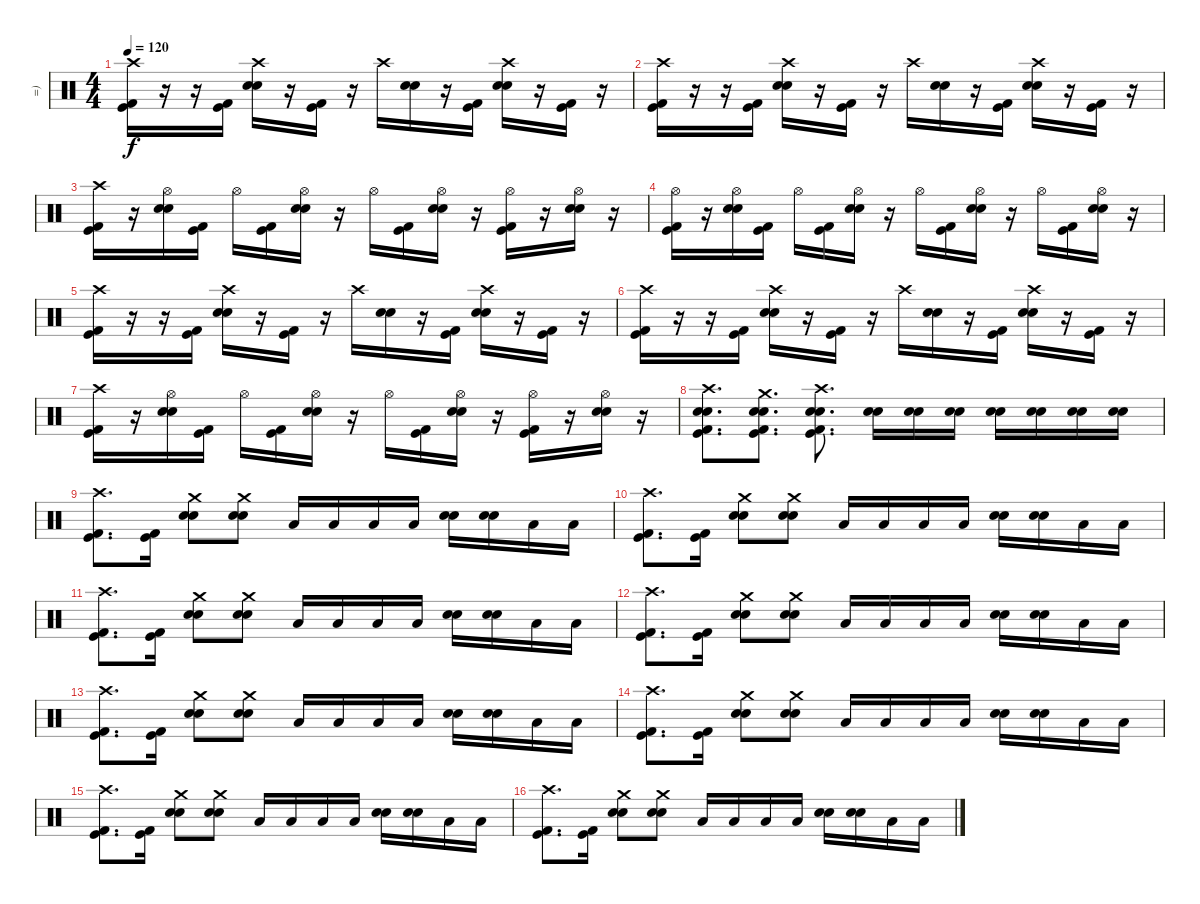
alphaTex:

\track ("=)" "=)") {instrument percussion}
\staff {score}
\articulation defaults
\ts (4 4)
\tempo 120
\clef neutral
\ks c
("Crash high (hit)" "Kick (hit)" "Kick (hit) 2").16{dy f} r.16 r.16 ("Kick (hit)" "Kick (hit) 2").16 ("Crash high (hit)" "Snare (hit) 2" "Electric Snare (hit)").16 r.16 ("Kick (hit)" "Kick (hit) 2").16 r.16 "Crash high (hit)".16 ("Snare (hit) 2" "Electric Snare (hit)").16 r.16 ("Kick (hit)" "Kick (hit) 2").16 ("Crash high (hit)" "Snare (hit) 2" "Electric Snare (hit)").16 r.16 ("Kick (hit)" "Kick (hit) 2").16 r.16 |
("Crash high (hit)" "Kick (hit)" "Kick (hit) 2").16 r.16 r.16 ("Kick (hit)" "Kick (hit) 2").16 ("Crash high (hit)" "Snare (hit) 2" "Electric Snare (hit)").16 r.16 ("Kick (hit)" "Kick (hit) 2").16 r.16 "Crash high (hit)".16 ("Snare (hit) 2" "Electric Snare (hit)").16 r.16 ("Kick (hit)" "Kick (hit) 2").16 ("Crash high (hit)" "Snare (hit) 2" "Electric Snare (hit)").16 r.16 ("Kick (hit)" "Kick (hit) 2").16 r.16 |
("Crash high (hit)" "Kick (hit)" "Kick (hit) 2").16 r.16 ("Hi-Hat (open)" "Snare (hit) 2" "Electric Snare (hit)").16 ("Kick (hit)" "Kick (hit) 2").16 "Hi-Hat (open)".16 ("Kick (hit)" "Kick (hit) 2").16 ("Hi-Hat (open)" "Snare (hit) 2" "Electric Snare (hit)").16 r.16 "Hi-Hat (open)".16 ("Kick (hit)" "Kick (hit) 2").16 ("Hi-Hat (open)" "Snare (hit) 2" "Electric Snare (hit)").16 r.16 ("Hi-Hat (open)" "Kick (hit)" "Kick (hit) 2").16 r.16 ("Hi-Hat (open)" "Snare (hit) 2" "Electric Snare (hit)").16 r.16 |
("Hi-Hat (open)" "Kick (hit)" "Kick (hit) 2").16 r.16 ("Hi-Hat (open)" "Snare (hit) 2" "Electric Snare (hit)").16 ("Kick (hit)" "Kick (hit) 2").16 "Hi-Hat (open)".16 ("Kick (hit)" "Kick (hit) 2").16 ("Hi-Hat (open)" "Snare (hit) 2" "Electric Snare (hit)").16 r.16 "Hi-Hat (open)".16 ("Kick (hit)" "Kick (hit) 2").16 ("Hi-Hat (open)" "Snare (hit) 2" "Electric Snare (hit)").16 r.16 "Hi-Hat (open)".16 ("Kick (hit)" "Kick (hit) 2").16 ("Hi-Hat (open)" "Snare (hit) 2" "Electric Snare (hit)").16 r.16 |
("Crash high (hit)" "Kick (hit)" "Kick (hit) 2").16 r.16 r.16 ("Kick (hit)" "Kick (hit) 2").16 ("Crash high (hit)" "Snare (hit) 2" "Electric Snare (hit)").16 r.16 ("Kick (hit)" "Kick (hit) 2").16 r.16 "Crash high (hit)".16 ("Snare (hit) 2" "Electric Snare (hit)").16 r.16 ("Kick (hit)" "Kick (hit) 2").16 ("Crash high (hit)" "Snare (hit) 2" "Electric Snare (hit)").16 r.16 ("Kick (hit)" "Kick (hit) 2").16 r.16 |
("Crash high (hit)" "Kick (hit)" "Kick (hit) 2").16 r.16 r.16 ("Kick (hit)" "Kick (hit) 2").16 ("Crash high (hit)" "Snare (hit) 2" "Electric Snare (hit)").16 r.16 ("Kick (hit)" "Kick (hit) 2").16 r.16 "Crash high (hit)".16 ("Snare (hit) 2" "Electric Snare (hit)").16 r.16 ("Kick (hit)" "Kick (hit) 2").16 ("Crash high (hit)" "Snare (hit) 2" "Electric Snare (hit)").16 r.16 ("Kick (hit)" "Kick (hit) 2").16 r.16 |
("Crash high (hit)" "Kick (hit)" "Kick (hit) 2").16 r.16 ("Hi-Hat (open)" "Snare (hit) 2" "Electric Snare (hit)").16 ("Kick (hit)" "Kick (hit) 2").16 "Hi-Hat (open)".16 ("Kick (hit)" "Kick (hit) 2").16 ("Hi-Hat (open)" "Snare (hit) 2" "Electric Snare (hit)").16 r.16 "Hi-Hat (open)".16 ("Kick (hit)" "Kick (hit) 2").16 ("Hi-Hat (open)" "Snare (hit) 2" "Electric Snare (hit)").16 r.16 ("Hi-Hat (open)" "Kick (hit)" "Kick (hit) 2").16 r.16 ("Hi-Hat (open)" "Snare (hit) 2" "Electric Snare (hit)").16 r.16 |
("Crash high (hit)" "Snare (hit) 2" "Electric Snare (hit)" "Kick (hit)" "Kick (hit) 2").8{d} ("Crash medium (hit)" "Snare (hit) 2" "Electric Snare (hit)" "Kick (hit)" "Kick (hit) 2").8{d} ("Crash high (hit)" "Snare (hit) 2" "Electric Snare (hit)" "Kick (hit)" "Kick (hit) 2").8{d} ("Electric Snare (hit)" "Snare (hit) 2").16 ("Electric Snare (hit)" "Snare (hit) 2").16 ("Electric Snare (hit)" "Snare (hit) 2").16 ("Electric Snare (hit)" "Snare (hit) 2").16 ("Electric Snare (hit)" "Snare (hit) 2").16 ("Electric Snare (hit)" "Snare (hit) 2").16 ("Electric Snare (hit)" "Snare (hit) 2").16 |
("Crash high (hit)" "Kick (hit)" "Kick (hit) 2").8{d} ("Kick (hit)" "Kick (hit) 2").16 ("Crash medium (hit)" "Snare (hit) 2" "Electric Snare (hit)").8 ("Crash medium (hit)" "Snare (hit) 2" "Electric Snare (hit)").8 "Low Floor Tom (hit)".16 "Low Tom (hit)".16 "Low Floor Tom (hit)".16 "Low Floor Tom (hit)".16 ("Snare (hit) 2" "Electric Snare (hit)").16 ("Snare (hit) 2" "Electric Snare (hit)").16 "Low Floor Tom (hit)".16 "Low Tom (hit)".16 |
("Crash high (hit)" "Kick (hit)" "Kick (hit) 2").8{d} ("Kick (hit)" "Kick (hit) 2").16 ("Crash medium (hit)" "Snare (hit) 2" "Electric Snare (hit)").8 ("Crash medium (hit)" "Snare (hit) 2" "Electric Snare (hit)").8 "Low Floor Tom (hit)".16 "Low Tom (hit)".16 "Low Floor Tom (hit)".16 "Low Floor Tom (hit)".16 ("Snare (hit) 2" "Electric Snare (hit)").16 ("Snare (hit) 2" "Electric Snare (hit)").16 "Low Floor Tom (hit)".16 "Low Tom (hit)".16 |
("Crash high (hit)" "Kick (hit)" "Kick (hit) 2").8{d} ("Kick (hit)" "Kick (hit) 2").16 ("Crash medium (hit)" "Snare (hit) 2" "Electric Snare (hit)").8 ("Crash medium (hit)" "Snare (hit) 2" "Electric Snare (hit)").8 "Low Floor Tom (hit)".16 "Low Tom (hit)".16 "Low Floor Tom (hit)".16 "Low Floor Tom (hit)".16 ("Snare (hit) 2" "Electric Snare (hit)").16 ("Snare (hit) 2" "Electric Snare (hit)").16 "Low Floor Tom (hit)".16 "Low Tom (hit)".16 |
("Crash high (hit)" "Kick (hit)" "Kick (hit) 2").8{d} ("Kick (hit)" "Kick (hit) 2").16 ("Crash medium (hit)" "Snare (hit) 2" "Electric Snare (hit)").8 ("Crash medium (hit)" "Snare (hit) 2" "Electric Snare (hit)").8 "Low Floor Tom (hit)".16 "Low Tom (hit)".16 "Low Floor Tom (hit)".16 "Low Floor Tom (hit)".16 ("Snare (hit) 2" "Electric Snare (hit)").16 ("Snare (hit) 2" "Electric Snare (hit)").16 "Low Floor Tom (hit)".16 "Low Tom (hit)".16 |
("Crash high (hit)" "Kick (hit)" "Kick (hit) 2").8{d} ("Kick (hit)" "Kick (hit) 2").16 ("Crash medium (hit)" "Snare (hit) 2" "Electric Snare (hit)").8 ("Crash medium (hit)" "Snare (hit) 2" "Electric Snare (hit)").8 "Low Floor Tom (hit)".16 "Low Tom (hit)".16 "Low Floor Tom (hit)".16 "Low Floor Tom (hit)".16 ("Snare (hit) 2" "Electric Snare (hit)").16 ("Snare (hit) 2" "Electric Snare (hit)").16 "Low Floor Tom (hit)".16 "Low Tom (hit)".16 |
("Crash high (hit)" "Kick (hit)" "Kick (hit) 2").8{d} ("Kick (hit)" "Kick (hit) 2").16 ("Crash medium (hit)" "Snare (hit) 2" "Electric Snare (hit)").8 ("Crash medium (hit)" "Snare (hit) 2" "Electric Snare (hit)").8 "Low Floor Tom (hit)".16 "Low Tom (hit)".16 "Low Floor Tom (hit)".16 "Low Floor Tom (hit)".16 ("Snare (hit) 2" "Electric Snare (hit)").16 ("Snare (hit) 2" "Electric Snare (hit)").16 "Low Floor Tom (hit)".16 "Low Tom (hit)".16 |
("Crash high (hit)" "Kick (hit)" "Kick (hit) 2").8{d} ("Kick (hit)" "Kick (hit) 2").16 ("Crash medium (hit)" "Snare (hit) 2" "Electric Snare (hit)").8 ("Crash medium (hit)" "Snare (hit) 2" "Electric Snare (hit)").8 "Low Floor Tom (hit)".16 "Low Tom (hit)".16 "Low Floor Tom (hit)".16 "Low Floor Tom (hit)".16 ("Snare (hit) 2" "Electric Snare (hit)").16 ("Snare (hit) 2" "Electric Snare (hit)").16 "Low Floor Tom (hit)".16 "Low Tom (hit)".16 |
("Crash high (hit)" "Kick (hit)" "Kick (hit) 2").8{d} ("Kick (hit)" "Kick (hit) 2").16 ("Crash medium (hit)" "Snare (hit) 2" "Electric Snare (hit)").8 ("Crash medium (hit)" "Snare (hit) 2" "Electric Snare (hit)").8 "Low Floor Tom (hit)".16 "Low Tom (hit)".16 "Low Floor Tom (hit)".16 "Low Floor Tom (hit)".16 ("Snare (hit) 2" "Electric Snare (hit)").16 ("Snare (hit) 2" "Electric Snare (hit)").16 "Low Floor Tom (hit)".16 "Low Tom (hit)".16
